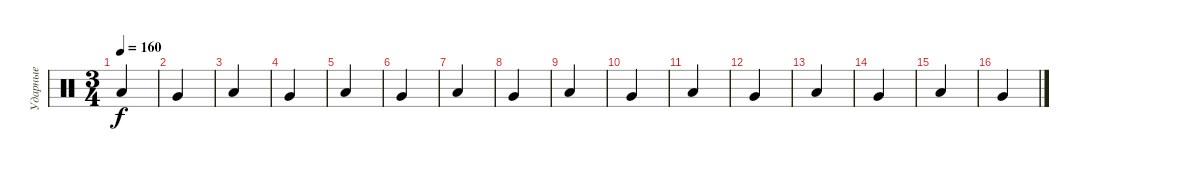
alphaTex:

\track ("Ударные" "Ударные") {instrument percussion}
\staff {score}
\articulation defaults
\ts (3 4)
\tempo 160
\clef neutral
\ks c "Low Floor Tom (hit)".4{dy f}
|
"Very Low Tom (hit)".4 |
"Low Floor Tom (hit)".4 |
"Very Low Tom (hit)".4 |
"Low Floor Tom (hit)".4 |
"Very Low Tom (hit)".4 |
"Low Floor Tom (hit)".4 |
"Very Low Tom (hit)".4 |
"Low Floor Tom (hit)".4 |
"Very Low Tom (hit)".4 |
"Low Floor Tom (hit)".4 |
"Very Low Tom (hit)".4 |
"Low Floor Tom (hit)".4 |
"Very Low Tom (hit)".4 |
"Low Floor Tom (hit)".4 |
"Very Low Tom (hit)".4
